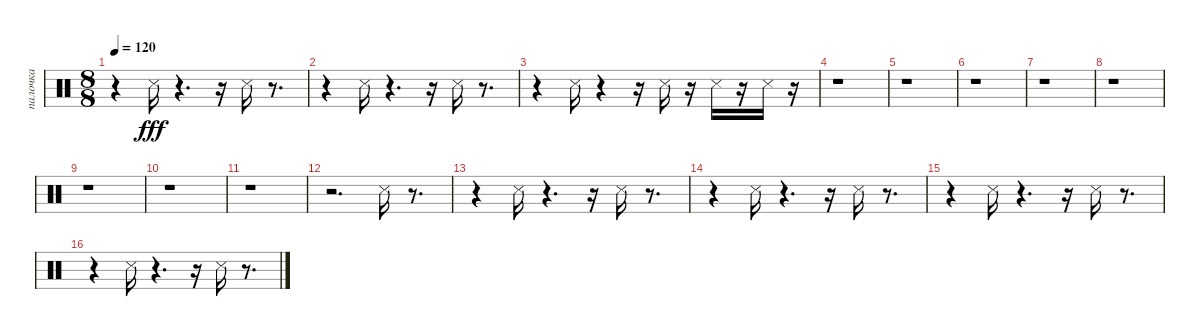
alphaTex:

\track ("палочка" "палочка") {instrument percussion}
\staff {score}
\articulation defaults
\ts (8 8)
\tempo 120
\clef neutral
\ks c
r.4{dy fff} "Snare (side stick) 3".16 r.4{d} r.16 "Snare (side stick) 3".16 r.8{d} |
r.4 "Snare (side stick) 3".16 r.4{d} r.16 "Snare (side stick) 3".16 r.8{d} |
r.4 "Snare (side stick) 3".16 r.4 r.16 "Snare (side stick) 3".16 r.16 "Snare (side stick) 3".16 r.16 "Snare (side stick) 3".16 r.16 |
r.1 |
r.1 |
r.1 |
r.1 |
r.1 |
r.1 |
r.1 |
r.1 |
r.2{d} "Snare (side stick) 3".16 r.8{d} |
r.4 "Snare (side stick) 3".16 r.4{d} r.16 "Snare (side stick) 3".16 r.8{d} |
r.4 "Snare (side stick) 3".16 r.4{d} r.16 "Snare (side stick) 3".16 r.8{d} |
r.4 "Snare (side stick) 3".16 r.4{d} r.16 "Snare (side stick) 3".16 r.8{d} |
r.4 "Snare (side stick) 3".16 r.4{d} r.16 "Snare (side stick) 3".16 r.8{d}
